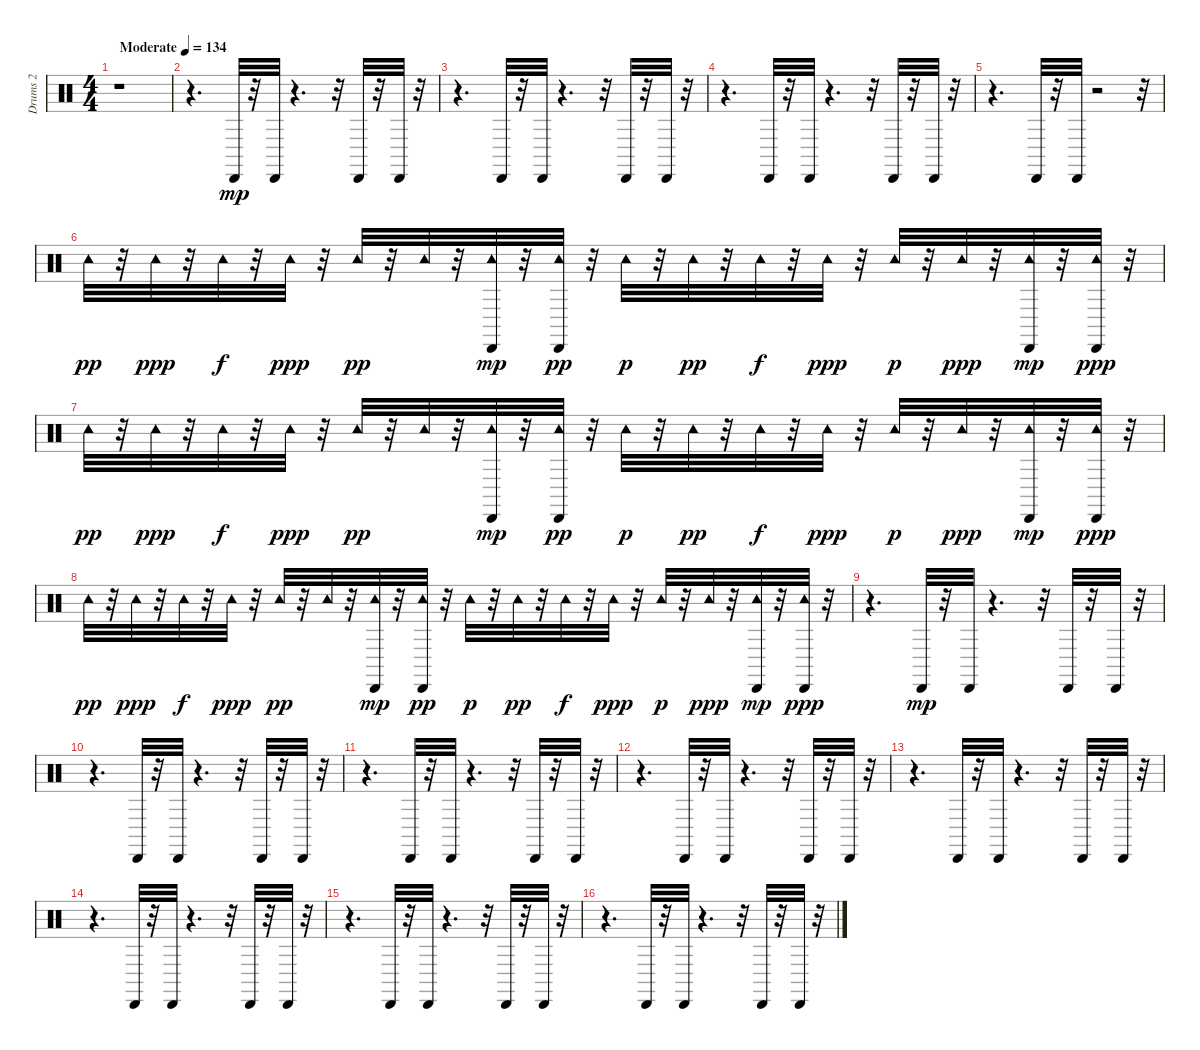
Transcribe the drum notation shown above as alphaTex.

\track ("Drums 2" "Drums 2") {instrument percussion}
\staff {score}
\articulation defaults
\ts (4 4)
\tempo (134 "Moderate")
\clef neutral
\ks c
r.1{dy mp} |
r.4{d} "Cabasa (hit)".32 r.32 "Cabasa (hit)".32 r.4{d} r.32 "Cabasa (hit)".32 r.32 "Cabasa (hit)".32 r.32 |
r.4{d} "Cabasa (hit)".32 r.32 "Cabasa (hit)".32 r.4{d} r.32 "Cabasa (hit)".32 r.32 "Cabasa (hit)".32 r.32 |
r.4{d} "Cabasa (hit)".32 r.32 "Cabasa (hit)".32 r.4{d} r.32 "Cabasa (hit)".32 r.32 "Cabasa (hit)".32 r.32 |
r.4{d} "Cabasa (hit)".32 r.32 "Cabasa (hit)".32 r.2 r.32 |
"Tambourine (hit)".32{dy pp} r.32 "Tambourine (hit)".32{dy ppp} r.32 "Tambourine (hit)".32{dy f} r.32 "Tambourine (hit)".32{dy ppp} r.32 "Tambourine (hit)".32{dy pp} r.32 "Tambourine (hit)".32 r.32 ("Cabasa (hit)" "Tambourine (hit)").32{dy mp} r.32 ("Cabasa (hit)" "Tambourine (hit)").32{dy pp} r.32 "Tambourine (hit)".32{dy p} r.32 "Tambourine (hit)".32{dy pp} r.32 "Tambourine (hit)".32{dy f} r.32 "Tambourine (hit)".32{dy ppp} r.32 "Tambourine (hit)".32{dy p} r.32 "Tambourine (hit)".32{dy ppp} r.32 ("Cabasa (hit)" "Tambourine (hit)").32{dy mp} r.32 ("Cabasa (hit)" "Tambourine (hit)").32{dy ppp} r.32 |
"Tambourine (hit)".32{dy pp} r.32 "Tambourine (hit)".32{dy ppp} r.32 "Tambourine (hit)".32{dy f} r.32 "Tambourine (hit)".32{dy ppp} r.32 "Tambourine (hit)".32{dy pp} r.32 "Tambourine (hit)".32 r.32 ("Cabasa (hit)" "Tambourine (hit)").32{dy mp} r.32 ("Cabasa (hit)" "Tambourine (hit)").32{dy pp} r.32 "Tambourine (hit)".32{dy p} r.32 "Tambourine (hit)".32{dy pp} r.32 "Tambourine (hit)".32{dy f} r.32 "Tambourine (hit)".32{dy ppp} r.32 "Tambourine (hit)".32{dy p} r.32 "Tambourine (hit)".32{dy ppp} r.32 ("Cabasa (hit)" "Tambourine (hit)").32{dy mp} r.32 ("Cabasa (hit)" "Tambourine (hit)").32{dy ppp} r.32 |
"Tambourine (hit)".32{dy pp} r.32 "Tambourine (hit)".32{dy ppp} r.32 "Tambourine (hit)".32{dy f} r.32 "Tambourine (hit)".32{dy ppp} r.32 "Tambourine (hit)".32{dy pp} r.32 "Tambourine (hit)".32 r.32 ("Cabasa (hit)" "Tambourine (hit)").32{dy mp} r.32 ("Cabasa (hit)" "Tambourine (hit)").32{dy pp} r.32 "Tambourine (hit)".32{dy p} r.32 "Tambourine (hit)".32{dy pp} r.32 "Tambourine (hit)".32{dy f} r.32 "Tambourine (hit)".32{dy ppp} r.32 "Tambourine (hit)".32{dy p} r.32 "Tambourine (hit)".32{dy ppp} r.32 ("Cabasa (hit)" "Tambourine (hit)").32{dy mp} r.32 ("Cabasa (hit)" "Tambourine (hit)").32{dy ppp} r.32 |
r.4{d} "Cabasa (hit)".32{dy mp} r.32 "Cabasa (hit)".32 r.4{d} r.32 "Cabasa (hit)".32 r.32 "Cabasa (hit)".32 r.32 |
r.4{d} "Cabasa (hit)".32 r.32 "Cabasa (hit)".32 r.4{d} r.32 "Cabasa (hit)".32 r.32 "Cabasa (hit)".32 r.32 |
r.4{d} "Cabasa (hit)".32 r.32 "Cabasa (hit)".32 r.4{d} r.32 "Cabasa (hit)".32 r.32 "Cabasa (hit)".32 r.32 |
r.4{d} "Cabasa (hit)".32 r.32 "Cabasa (hit)".32 r.4{d} r.32 "Cabasa (hit)".32 r.32 "Cabasa (hit)".32 r.32 |
r.4{d} "Cabasa (hit)".32 r.32 "Cabasa (hit)".32 r.4{d} r.32 "Cabasa (hit)".32 r.32 "Cabasa (hit)".32 r.32 |
r.4{d} "Cabasa (hit)".32 r.32 "Cabasa (hit)".32 r.4{d} r.32 "Cabasa (hit)".32 r.32 "Cabasa (hit)".32 r.32 |
r.4{d} "Cabasa (hit)".32 r.32 "Cabasa (hit)".32 r.4{d} r.32 "Cabasa (hit)".32 r.32 "Cabasa (hit)".32 r.32 |
r.4{d} "Cabasa (hit)".32 r.32 "Cabasa (hit)".32 r.4{d} r.32 "Cabasa (hit)".32 r.32 "Cabasa (hit)".32 r.32
